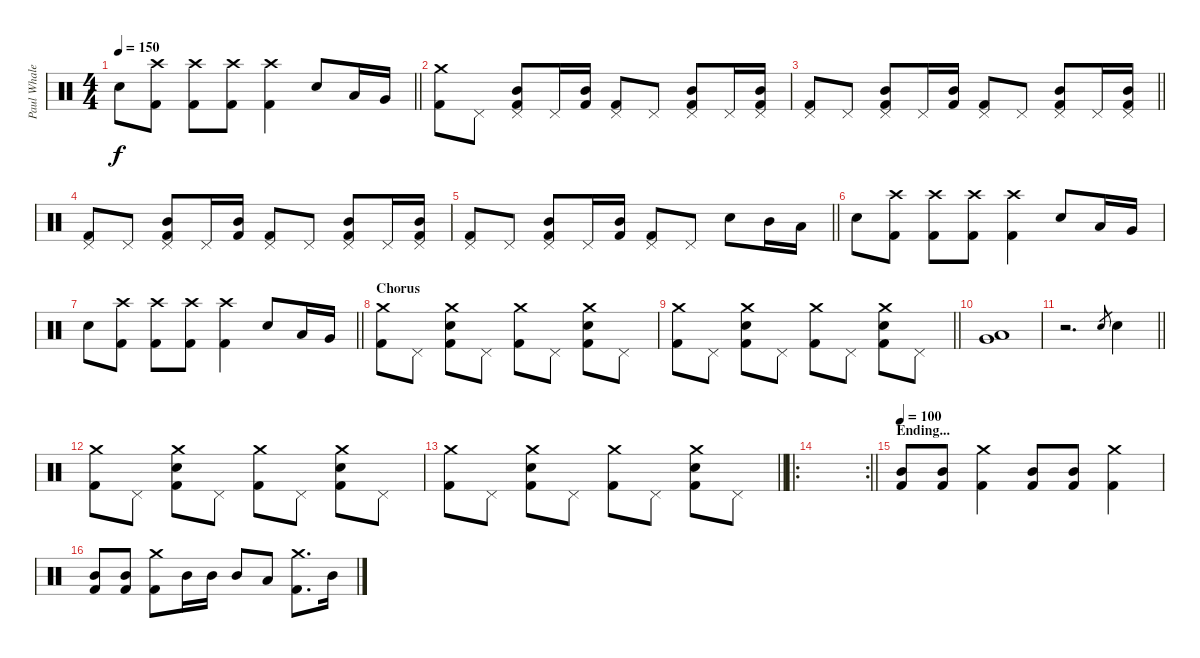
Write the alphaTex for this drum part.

\track ("Paul Whaley" "Paul Whale") {instrument percussion}
\staff {score}
\articulation defaults
\ts (4 4)
\tempo 150
\clef neutral
\barLineRight lightlight
\ks c "Snare (hit) 2".8{dy f}
("Kick (hit) 2" "Crash high (hit)").8 ("Kick (hit) 2" "Crash high (hit)").8 ("Kick (hit) 2" "Crash high (hit)").8 ("Kick (hit) 2" "Crash high (hit)").4 "Snare (hit) 2".8 "Low Tom (hit)".16 "Very Low Tom (hit)".16 |
("Kick (hit) 2" "Crash medium (hit)").8 "Pedal Hi-Hat (hit)".8 ("Kick (hit) 2" "Mid Tom (hit)" "Pedal Hi-Hat (hit)").8 "Pedal Hi-Hat (hit)".16 ("Kick (hit) 2" "Mid Tom (hit)").16 ("Kick (hit) 2" "Pedal Hi-Hat (hit)").8 "Pedal Hi-Hat (hit)".8 ("Kick (hit) 2" "Mid Tom (hit)" "Pedal Hi-Hat (hit)").8 "Pedal Hi-Hat (hit)".16 ("Kick (hit) 2" "Mid Tom (hit)" "Pedal Hi-Hat (hit)").16 |
\barLineRight lightlight
("Kick (hit) 2" "Pedal Hi-Hat (hit)").8 "Pedal Hi-Hat (hit)".8 ("Kick (hit) 2" "Mid Tom (hit)" "Pedal Hi-Hat (hit)").8 "Pedal Hi-Hat (hit)".16 ("Kick (hit) 2" "Mid Tom (hit)").16 ("Kick (hit) 2" "Pedal Hi-Hat (hit)").8 "Pedal Hi-Hat (hit)".8 ("Kick (hit) 2" "Mid Tom (hit)" "Pedal Hi-Hat (hit)").8 "Pedal Hi-Hat (hit)".16 ("Kick (hit) 2" "Mid Tom (hit)" "Pedal Hi-Hat (hit)").16 |
("Kick (hit) 2" "Pedal Hi-Hat (hit)").8 "Pedal Hi-Hat (hit)".8 ("Kick (hit) 2" "Mid Tom (hit)" "Pedal Hi-Hat (hit)").8 "Pedal Hi-Hat (hit)".16 ("Kick (hit) 2" "Mid Tom (hit)").16 ("Kick (hit) 2" "Pedal Hi-Hat (hit)").8 "Pedal Hi-Hat (hit)".8 ("Kick (hit) 2" "Mid Tom (hit)" "Pedal Hi-Hat (hit)").8 "Pedal Hi-Hat (hit)".16 ("Kick (hit) 2" "Mid Tom (hit)" "Pedal Hi-Hat (hit)").16 |
\barLineRight lightlight
("Kick (hit) 2" "Pedal Hi-Hat (hit)").8 "Pedal Hi-Hat (hit)".8 ("Kick (hit) 2" "Mid Tom (hit)" "Pedal Hi-Hat (hit)").8 "Pedal Hi-Hat (hit)".16 ("Kick (hit) 2" "Mid Tom (hit)").16 ("Kick (hit) 2" "Pedal Hi-Hat (hit)").8 "Pedal Hi-Hat (hit)".8 "Snare (hit) 2".8 "Mid Tom (hit)".16 "Low Tom (hit)".16 |
"Snare (hit) 2".8 ("Kick (hit) 2" "Crash high (hit)").8 ("Kick (hit) 2" "Crash high (hit)").8 ("Kick (hit) 2" "Crash high (hit)").8 ("Kick (hit) 2" "Crash high (hit)").4 "Snare (hit) 2".8 "Low Tom (hit)".16 "Very Low Tom (hit)".16 |
\barLineRight lightlight "Snare (hit) 2".8
("Kick (hit) 2" "Crash high (hit)").8 ("Kick (hit) 2" "Crash high (hit)").8 ("Kick (hit) 2" "Crash high (hit)").8 ("Kick (hit) 2" "Crash high (hit)").4 "Snare (hit) 2".8 "Low Tom (hit)".16 "Very Low Tom (hit)".16 |
\section ("" "Chorus")
("Kick (hit) 2" "Crash medium (hit)").8 "Pedal Hi-Hat (hit)".8 ("Kick (hit) 2" "Snare (hit) 2" "Crash medium (hit)").8 "Pedal Hi-Hat (hit)".8 ("Kick (hit) 2" "Crash medium (hit)").8 "Pedal Hi-Hat (hit)".8 ("Kick (hit) 2" "Snare (hit) 2" "Crash medium (hit)").8 "Pedal Hi-Hat (hit)".8 |
\barLineRight lightlight
("Kick (hit) 2" "Crash medium (hit)").8 "Pedal Hi-Hat (hit)".8 ("Kick (hit) 2" "Snare (hit) 2" "Crash medium (hit)").8 "Pedal Hi-Hat (hit)".8 ("Kick (hit) 2" "Crash medium (hit)").8 "Pedal Hi-Hat (hit)".8 ("Kick (hit) 2" "Snare (hit) 2" "Crash medium (hit)").8 "Pedal Hi-Hat (hit)".8 |
("Low Tom (hit)" "Very Low Tom (hit)").1 |
\barLineRight lightlight
r.2{d} "Snare (hit) 2".8{gr} "Snare (hit) 2".4 |
("Kick (hit) 2" "Crash medium (hit)").8 "Pedal Hi-Hat (hit)".8 ("Kick (hit) 2" "Snare (hit) 2" "Crash medium (hit)").8 "Pedal Hi-Hat (hit)".8 ("Kick (hit) 2" "Crash medium (hit)").8 "Pedal Hi-Hat (hit)".8 ("Kick (hit) 2" "Snare (hit) 2" "Crash medium (hit)").8 "Pedal Hi-Hat (hit)".8 |
\barLineRight lightlight
("Kick (hit) 2" "Crash medium (hit)").8 "Pedal Hi-Hat (hit)".8 ("Kick (hit) 2" "Snare (hit) 2" "Crash medium (hit)").8 "Pedal Hi-Hat (hit)".8 ("Kick (hit) 2" "Crash medium (hit)").8 "Pedal Hi-Hat (hit)".8 ("Kick (hit) 2" "Snare (hit) 2" "Crash medium (hit)").8 "Pedal Hi-Hat (hit)".8 |
\ro
\rc 2
\barLineRight lightlight
|
\section ("" "Ending...")
\tempo 100
("Kick (hit) 2" "Mid Tom (hit)").8 ("Kick (hit) 2" "Mid Tom (hit)").8 ("Kick (hit) 2" "Crash medium (hit)").4 ("Kick (hit) 2" "Mid Tom (hit)").8 ("Kick (hit) 2" "Mid Tom (hit)").8 ("Kick (hit) 2" "Crash medium (hit)").4 |
("Kick (hit) 2" "Mid Tom (hit)").8 ("Kick (hit) 2" "Mid Tom (hit)").8 ("Kick (hit) 2" "Crash medium (hit)").8 "Mid Tom (hit)".16 "Mid Tom (hit)".16 "Mid Tom (hit)".8 "Low Tom (hit)".8 ("Kick (hit) 2" "Crash medium (hit)").8{d} "Mid Tom (hit)".16
